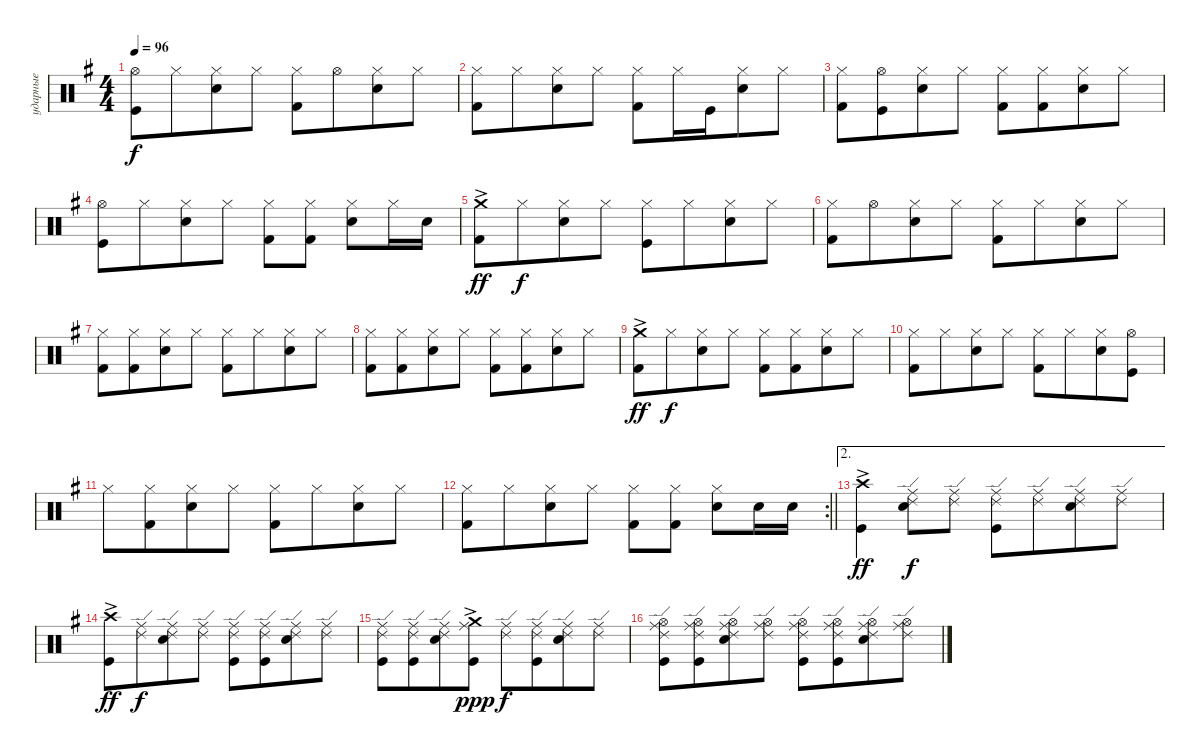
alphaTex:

\track ("ударные" "ударные") {instrument percussion}
\staff {score}
\articulation defaults
\ts (4 4)
\tempo 96
\clef neutral
\ks eminor
("Kick (hit)" "Hi-Hat (open)").8{dy f} "Hi-Hat (closed)".8{beam merge} ("Hi-Hat (closed)" "Snare (hit) 2").8 "Hi-Hat (closed)".8 ("Hi-Hat (closed)" "Kick (hit) 2").8 "Hi-Hat (open)".8{beam merge} ("Hi-Hat (closed)" "Snare (hit) 2").8 "Hi-Hat (closed)".8 |
("Hi-Hat (closed)" "Kick (hit) 2").8 "Hi-Hat (closed)".8{beam merge} ("Hi-Hat (closed)" "Snare (hit) 2").8 "Hi-Hat (closed)".8 ("Hi-Hat (closed)" "Kick (hit) 2").8 "Hi-Hat (closed)".16 "Kick (hit)".16{beam merge} ("Hi-Hat (closed)" "Snare (hit) 2").8 "Hi-Hat (closed)".8 |
("Hi-Hat (closed)" "Kick (hit) 2").8 ("Kick (hit)" "Hi-Hat (open)").8{beam merge} ("Hi-Hat (closed)" "Snare (hit) 2").8 "Hi-Hat (closed)".8 ("Hi-Hat (closed)" "Kick (hit) 2").8 ("Hi-Hat (closed)" "Kick (hit) 2").8{beam merge} ("Hi-Hat (closed)" "Snare (hit) 2").8 "Hi-Hat (closed)".8 |
("Kick (hit)" "Hi-Hat (open)").8 "Hi-Hat (closed)".8{beam merge} ("Hi-Hat (closed)" "Snare (hit) 2").8 "Hi-Hat (closed)".8 ("Hi-Hat (closed)" "Kick (hit) 2").8 ("Hi-Hat (closed)" "Kick (hit) 2").8 ("Hi-Hat (closed)" "Snare (hit) 2").8 "Hi-Hat (closed)".16 "Snare (hit) 2".16 |
("Crash medium (hit)"{ac} "Kick (hit) 2").8{dy ff} "Hi-Hat (closed)".8{dy f beam merge} ("Hi-Hat (closed)" "Snare (hit) 2").8 "Hi-Hat (closed)".8 ("Kick (hit)" "Hi-Hat (closed)").8 "Hi-Hat (closed)".8{beam merge} ("Snare (hit) 2" "Hi-Hat (closed)").8 "Hi-Hat (closed)".8 |
("Hi-Hat (closed)" "Kick (hit) 2").8 "Hi-Hat (open)".8{beam merge} ("Hi-Hat (closed)" "Snare (hit) 2").8 "Hi-Hat (closed)".8 ("Hi-Hat (closed)" "Kick (hit) 2").8 "Hi-Hat (closed)".8{beam merge} ("Hi-Hat (closed)" "Snare (hit) 2").8 "Hi-Hat (closed)".8 |
("Hi-Hat (closed)" "Kick (hit) 2").8 ("Hi-Hat (closed)" "Kick (hit) 2").8{beam merge} ("Hi-Hat (closed)" "Snare (hit) 2").8 "Hi-Hat (closed)".8 ("Hi-Hat (closed)" "Kick (hit) 2").8 "Hi-Hat (closed)".8{beam merge} ("Hi-Hat (closed)" "Snare (hit) 2").8 "Hi-Hat (closed)".8 |
("Hi-Hat (closed)" "Kick (hit) 2").8 ("Hi-Hat (closed)" "Kick (hit) 2").8{beam merge} ("Hi-Hat (closed)" "Snare (hit) 2").8 "Hi-Hat (closed)".8 ("Hi-Hat (closed)" "Kick (hit) 2").8 ("Hi-Hat (closed)" "Kick (hit) 2").8{beam merge} ("Hi-Hat (closed)" "Snare (hit) 2").8 "Hi-Hat (closed)".8 |
("Crash medium (hit)"{ac} "Kick (hit) 2").8{dy ff} "Hi-Hat (closed)".8{dy f beam merge} ("Hi-Hat (closed)" "Snare (hit) 2").8 "Hi-Hat (closed)".8 ("Hi-Hat (closed)" "Kick (hit) 2").8 ("Hi-Hat (closed)" "Kick (hit) 2").8{beam merge} ("Hi-Hat (closed)" "Snare (hit) 2").8 "Hi-Hat (closed)".8 |
("Hi-Hat (closed)" "Kick (hit) 2").8 "Hi-Hat (closed)".8{beam merge} ("Hi-Hat (closed)" "Snare (hit) 2").8 "Hi-Hat (closed)".8 ("Hi-Hat (closed)" "Kick (hit) 2").8 "Hi-Hat (closed)".8{beam merge} ("Hi-Hat (closed)" "Snare (hit) 2").8 ("Kick (hit)" "Hi-Hat (open)").8 |
"Hi-Hat (closed)".8 ("Hi-Hat (closed)" "Kick (hit) 2").8{beam merge} ("Hi-Hat (closed)" "Snare (hit) 2").8 "Hi-Hat (closed)".8 ("Hi-Hat (closed)" "Kick (hit) 2").8 "Hi-Hat (closed)".8{beam merge} ("Hi-Hat (closed)" "Snare (hit) 2").8 "Hi-Hat (closed)".8 |
\rc 2
\barLineRight lightlight
("Hi-Hat (closed)" "Kick (hit) 2").8 "Hi-Hat (closed)".8{beam merge} ("Hi-Hat (closed)" "Snare (hit) 2").8 "Hi-Hat (closed)".8 ("Hi-Hat (closed)" "Kick (hit) 2").8 ("Hi-Hat (closed)" "Kick (hit) 2").8 ("Hi-Hat (closed)" "Snare (hit) 2").8 "Snare (hit) 2".16 "Snare (hit) 2".16 |
\ae 2
("Kick (hit)" "Crash high (hit)"{ac}).4{dy ff} ("Snare (hit) 2" "Ride (middle)" "Ride (edge) 2").8{dy f} ("Ride (middle)" "Ride (edge) 2").8 ("Kick (hit)" "Ride (middle)" "Ride (edge) 2").8 ("Ride (middle)" "Ride (edge) 2").8{beam merge} ("Snare (hit) 2" "Ride (middle)" "Ride (edge) 2").8 ("Ride (middle)" "Ride (edge) 2").8 |
("Kick (hit)" "Crash high (hit)"{ac}).8{dy ff} ("Ride (middle)" "Ride (edge) 2").8{dy f beam merge} ("Snare (hit) 2" "Ride (middle)" "Ride (edge) 2").8 ("Ride (middle)" "Ride (edge) 2").8 ("Kick (hit)" "Ride (middle)" "Ride (edge) 2").8 ("Kick (hit)" "Ride (middle)" "Ride (edge) 2").8{beam merge} ("Ride (middle)" "Ride (edge) 2" "Snare (hit) 2").8 ("Ride (middle)" "Ride (edge) 2").8 |
("Kick (hit)" "Ride (middle)" "Ride (edge) 2").8 ("Kick (hit)" "Ride (middle)" "Ride (edge) 2").8{beam merge} ("Ride (middle)" "Ride (edge) 2" "Snare (hit) 2").8 ("Kick (hit)" "Crash medium (hit)"{ac} "Ride (middle)").8{dy ppp} ("Ride (middle)" "Ride (edge) 2").8{dy f} ("Ride (middle)" "Ride (edge) 2" "Kick (hit)").8{beam merge} ("Snare (hit) 2" "Ride (middle)" "Ride (edge) 2").8 ("Ride (middle)" "Ride (edge) 2").8 |
("Kick (hit)" "Ride (middle)" "Ride (edge) 2" "Hi-Hat (open)").8 ("Kick (hit)" "Ride (middle)" "Ride (edge) 2" "Hi-Hat (open)").8{beam merge} ("Ride (middle)" "Ride (edge) 2" "Snare (hit) 2" "Hi-Hat (open)").8 ("Ride (middle)" "Ride (edge) 2" "Hi-Hat (open)").8 ("Kick (hit)" "Ride (middle)" "Ride (edge) 2" "Hi-Hat (open)").8 ("Kick (hit)" "Ride (middle)" "Ride (edge) 2" "Hi-Hat (open)").8{beam merge} ("Ride (middle)" "Ride (edge) 2" "Snare (hit) 2" "Hi-Hat (open)").8 ("Ride (middle)" "Ride (edge) 2" "Hi-Hat (open)").8
